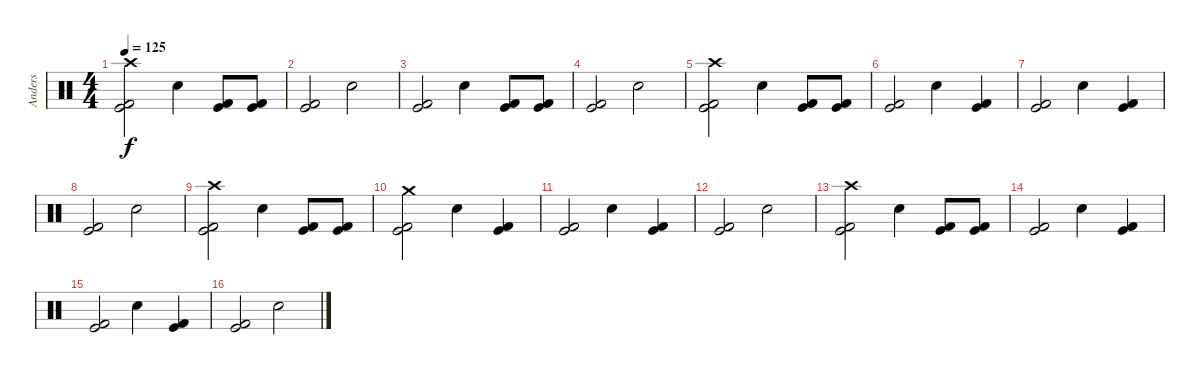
\track ("Anders" "Anders") {instrument percussion}
\staff {score}
\articulation defaults
\ts (4 4)
\tempo 125
\clef neutral
\ks c
("Crash high (hit)" "Kick (hit) 2" "Kick (hit)").2{dy f} "Electric Snare (hit)".4 ("Kick (hit) 2" "Kick (hit)").8 ("Kick (hit) 2" "Kick (hit)").8 |
("Kick (hit) 2" "Kick (hit)").2 "Electric Snare (hit)".2 |
("Kick (hit) 2" "Kick (hit)").2 "Electric Snare (hit)".4 ("Kick (hit) 2" "Kick (hit)").8 ("Kick (hit) 2" "Kick (hit)").8 |
("Kick (hit) 2" "Kick (hit)").2 "Electric Snare (hit)".2 |
("Crash high (hit)" "Kick (hit) 2" "Kick (hit)").2 "Electric Snare (hit)".4 ("Kick (hit) 2" "Kick (hit)").8 ("Kick (hit) 2" "Kick (hit)").8 |
("Kick (hit) 2" "Kick (hit)").2 "Electric Snare (hit)".4 ("Kick (hit) 2" "Kick (hit)").4 |
("Kick (hit) 2" "Kick (hit)").2 "Electric Snare (hit)".4 ("Kick (hit) 2" "Kick (hit)").4 |
("Kick (hit) 2" "Kick (hit)").2 "Electric Snare (hit)".2 |
("Crash high (hit)" "Kick (hit) 2" "Kick (hit)").2 "Electric Snare (hit)".4 ("Kick (hit) 2" "Kick (hit)").8 ("Kick (hit) 2" "Kick (hit)").8 |
("Crash medium (hit)" "Kick (hit)" "Kick (hit) 2").2 "Electric Snare (hit)".4 ("Kick (hit) 2" "Kick (hit)").4 |
("Kick (hit) 2" "Kick (hit)").2 "Electric Snare (hit)".4 ("Kick (hit) 2" "Kick (hit)").4 |
("Kick (hit) 2" "Kick (hit)").2 "Electric Snare (hit)".2 |
("Crash high (hit)" "Kick (hit) 2" "Kick (hit)").2 "Electric Snare (hit)".4 ("Kick (hit) 2" "Kick (hit)").8 ("Kick (hit) 2" "Kick (hit)").8 |
("Kick (hit) 2" "Kick (hit)").2 "Electric Snare (hit)".4 ("Kick (hit) 2" "Kick (hit)").4 |
("Kick (hit) 2" "Kick (hit)").2 "Electric Snare (hit)".4 ("Kick (hit) 2" "Kick (hit)").4 |
("Kick (hit) 2" "Kick (hit)").2 "Electric Snare (hit)".2
